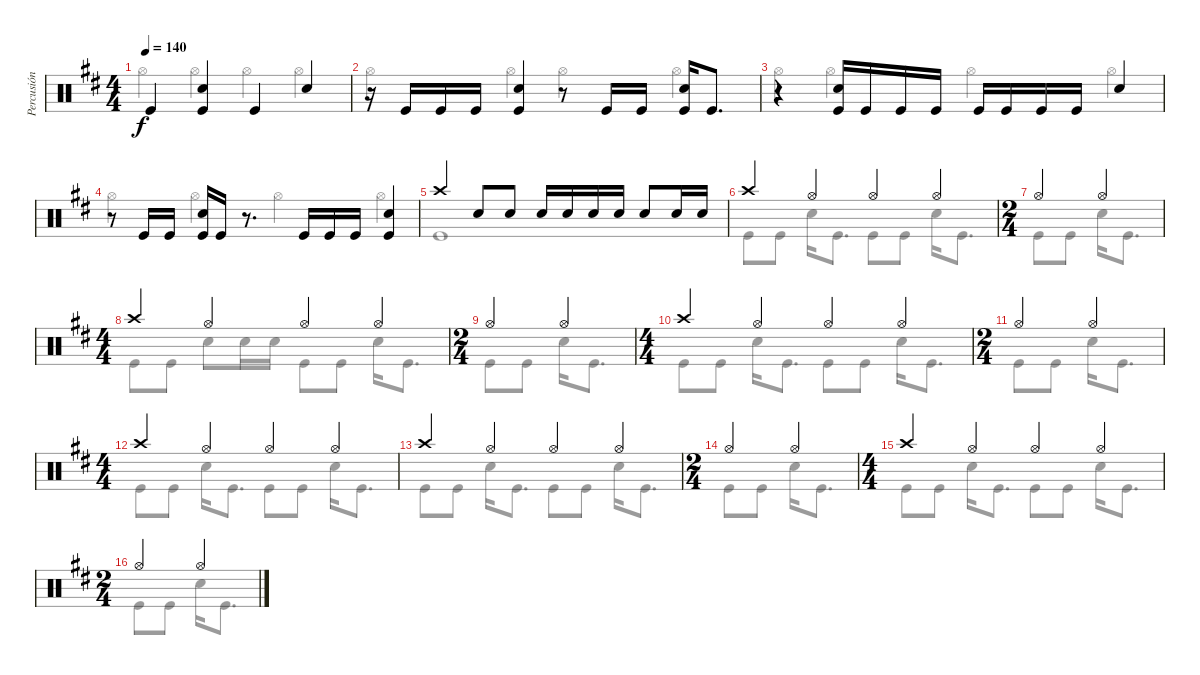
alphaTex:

\track ("Percusión" "Percusión") {instrument percussion}
\staff {score}
\articulation defaults
\voice
\ts (4 4)
\tempo 140
\clef neutral
\ks bminor "Kick (hit)".4{dy f}
("Snare (hit) 2" "Kick (hit)").4 "Kick (hit)".4 "Snare (hit) 2".4 |
r.16 "Kick (hit)".16 "Kick (hit)".16 "Kick (hit)".16 ("Snare (hit) 2" "Kick (hit)").4 r.8 "Kick (hit)".16 "Kick (hit)".16 ("Snare (hit) 2" "Kick (hit)").16 "Kick (hit)".8{d} |
r.4 ("Snare (hit) 2" "Kick (hit)").16 "Kick (hit)".16 "Kick (hit)".16 "Kick (hit)".16 "Kick (hit)".16 "Kick (hit)".16 "Kick (hit)".16 "Kick (hit)".16 "Snare (hit) 2".4 |
r.8 "Kick (hit)".16 "Kick (hit)".16 ("Snare (hit) 2" "Kick (hit)").16 "Kick (hit)".16 r.8{d} "Kick (hit)".16 "Kick (hit)".16 "Kick (hit)".16 ("Snare (hit) 2" "Kick (hit)").4 |
"Crash high (hit)".4 "Snare (hit) 2".8 "Snare (hit) 2".8 "Snare (hit) 2".16 "Snare (hit) 2".16 "Snare (hit) 2".16 "Snare (hit) 2".16 "Snare (hit) 2".8 "Snare (hit) 2".16 "Snare (hit) 2".16 |
"Crash high (hit)".4 "Hi-Hat (open)".4 "Hi-Hat (open)".4 "Hi-Hat (open)".4 |
\ts (2 4)
"Hi-Hat (open)".4 "Hi-Hat (open)".4 |
\ts (4 4)
"Crash high (hit)".4 "Hi-Hat (open)".4 "Hi-Hat (open)".4 "Hi-Hat (open)".4 |
\ts (2 4)
"Hi-Hat (open)".4 "Hi-Hat (open)".4 |
\ts (4 4)
"Crash high (hit)".4 "Hi-Hat (open)".4 "Hi-Hat (open)".4 "Hi-Hat (open)".4 |
\ts (2 4)
"Hi-Hat (open)".4 "Hi-Hat (open)".4 |
\ts (4 4)
"Crash high (hit)".4 "Hi-Hat (open)".4 "Hi-Hat (open)".4 "Hi-Hat (open)".4 |
"Crash high (hit)".4 "Hi-Hat (open)".4 "Hi-Hat (open)".4 "Hi-Hat (open)".4 |
\ts (2 4)
"Hi-Hat (open)".4 "Hi-Hat (open)".4 |
\ts (4 4)
"Crash high (hit)".4 "Hi-Hat (open)".4 "Hi-Hat (open)".4 "Hi-Hat (open)".4 |
\ts (2 4)
"Hi-Hat (open)".4 "Hi-Hat (open)".4
\voice
\clef neutral
\ottava regular
\simile none
\ks bminor "Hi-Hat (open)".4{dy f} "Hi-Hat (open)".4 "Hi-Hat (open)".4 "Hi-Hat (open)".4
|
"Hi-Hat (open)".4 "Hi-Hat (open)".4 "Hi-Hat (open)".4 "Hi-Hat (open)".4 |
"Hi-Hat (open)".4 "Hi-Hat (open)".4 "Hi-Hat (open)".4 "Hi-Hat (open)".4 |
"Hi-Hat (open)".4 "Hi-Hat (open)".4 "Hi-Hat (open)".4 "Hi-Hat (open)".4 |
"Kick (hit)".1 |
"Kick (hit)".8 "Kick (hit)".8 "Snare (hit) 2".16 "Kick (hit)".8{d} "Kick (hit)".8 "Kick (hit)".8 "Snare (hit) 2".16 "Kick (hit)".8{d} |
"Kick (hit)".8 "Kick (hit)".8 "Snare (hit) 2".16 "Kick (hit)".8{d} |
"Kick (hit)".8 "Kick (hit)".8 "Snare (hit) 2".8 "Snare (hit) 2".16 "Snare (hit) 2".16 "Kick (hit)".8 "Kick (hit)".8 "Snare (hit) 2".16 "Kick (hit)".8{d} |
"Kick (hit)".8 "Kick (hit)".8 "Snare (hit) 2".16 "Kick (hit)".8{d} |
"Kick (hit)".8 "Kick (hit)".8 "Snare (hit) 2".16 "Kick (hit)".8{d} "Kick (hit)".8 "Kick (hit)".8 "Snare (hit) 2".16 "Kick (hit)".8{d} |
"Kick (hit)".8 "Kick (hit)".8 "Snare (hit) 2".16 "Kick (hit)".8{d} |
"Kick (hit)".8 "Kick (hit)".8 "Snare (hit) 2".16 "Kick (hit)".8{d} "Kick (hit)".8 "Kick (hit)".8 "Snare (hit) 2".16 "Kick (hit)".8{d} |
"Kick (hit)".8 "Kick (hit)".8 "Snare (hit) 2".16 "Kick (hit)".8{d} "Kick (hit)".8 "Kick (hit)".8 "Snare (hit) 2".16 "Kick (hit)".8{d} |
"Kick (hit)".8 "Kick (hit)".8 "Snare (hit) 2".16 "Kick (hit)".8{d} |
"Kick (hit)".8 "Kick (hit)".8 "Snare (hit) 2".16 "Kick (hit)".8{d} "Kick (hit)".8 "Kick (hit)".8 "Snare (hit) 2".16 "Kick (hit)".8{d} |
"Kick (hit)".8 "Kick (hit)".8 "Snare (hit) 2".16 "Kick (hit)".8{d}
